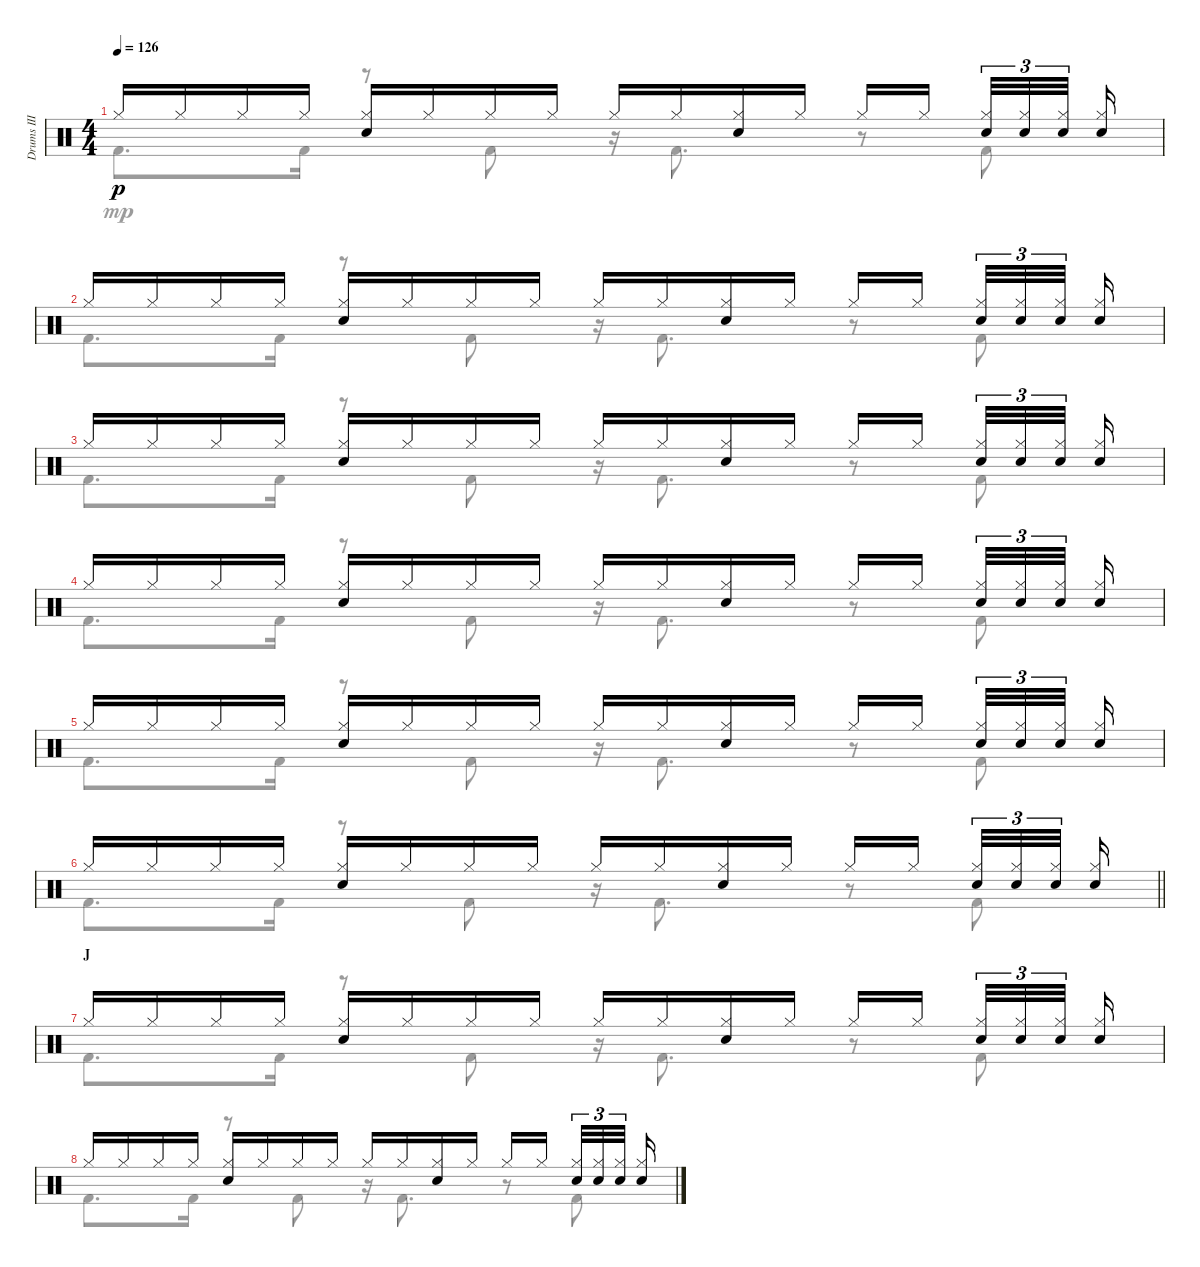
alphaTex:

\track ("Drums III" "Drums III") {instrument percussion}
\staff {score}
\articulation defaults
\voice
\ts (4 4)
\tempo 126
\clef neutral
\ks c "Hi-Hat (closed)".16{dy p} "Hi-Hat (closed)".16 "Hi-Hat (closed)".16 "Hi-Hat (closed)".16
("Hi-Hat (closed)" "Electric Snare (hit)").16 "Hi-Hat (closed)".16 "Hi-Hat (closed)".16 "Hi-Hat (closed)".16 "Hi-Hat (closed)".16 "Hi-Hat (closed)".16 ("Hi-Hat (closed)" "Electric Snare (hit)").16 "Hi-Hat (closed)".16 "Hi-Hat (closed)".16 "Hi-Hat (closed)".16{beam splitsecondary} ("Hi-Hat (closed)" "Electric Snare (hit)").32{tu (3 2)} ("Hi-Hat (closed)" "Electric Snare (hit)").32{tu (3 2)} ("Hi-Hat (closed)" "Electric Snare (hit)").32{tu (3 2) beam splitsecondary} ("Hi-Hat (closed)" "Electric Snare (hit)").16 |
"Hi-Hat (closed)".16 "Hi-Hat (closed)".16 "Hi-Hat (closed)".16 "Hi-Hat (closed)".16 ("Hi-Hat (closed)" "Electric Snare (hit)").16 "Hi-Hat (closed)".16 "Hi-Hat (closed)".16 "Hi-Hat (closed)".16 "Hi-Hat (closed)".16 "Hi-Hat (closed)".16 ("Hi-Hat (closed)" "Electric Snare (hit)").16 "Hi-Hat (closed)".16 "Hi-Hat (closed)".16 "Hi-Hat (closed)".16{beam splitsecondary} ("Hi-Hat (closed)" "Electric Snare (hit)").32{tu (3 2)} ("Hi-Hat (closed)" "Electric Snare (hit)").32{tu (3 2)} ("Hi-Hat (closed)" "Electric Snare (hit)").32{tu (3 2) beam splitsecondary} ("Hi-Hat (closed)" "Electric Snare (hit)").16 |
"Hi-Hat (closed)".16 "Hi-Hat (closed)".16 "Hi-Hat (closed)".16 "Hi-Hat (closed)".16 ("Hi-Hat (closed)" "Electric Snare (hit)").16 "Hi-Hat (closed)".16 "Hi-Hat (closed)".16 "Hi-Hat (closed)".16 "Hi-Hat (closed)".16 "Hi-Hat (closed)".16 ("Hi-Hat (closed)" "Electric Snare (hit)").16 "Hi-Hat (closed)".16 "Hi-Hat (closed)".16 "Hi-Hat (closed)".16{beam splitsecondary} ("Hi-Hat (closed)" "Electric Snare (hit)").32{tu (3 2)} ("Hi-Hat (closed)" "Electric Snare (hit)").32{tu (3 2)} ("Hi-Hat (closed)" "Electric Snare (hit)").32{tu (3 2) beam splitsecondary} ("Hi-Hat (closed)" "Electric Snare (hit)").16 |
"Hi-Hat (closed)".16 "Hi-Hat (closed)".16 "Hi-Hat (closed)".16 "Hi-Hat (closed)".16 ("Hi-Hat (closed)" "Electric Snare (hit)").16 "Hi-Hat (closed)".16 "Hi-Hat (closed)".16 "Hi-Hat (closed)".16 "Hi-Hat (closed)".16 "Hi-Hat (closed)".16 ("Hi-Hat (closed)" "Electric Snare (hit)").16 "Hi-Hat (closed)".16 "Hi-Hat (closed)".16 "Hi-Hat (closed)".16{beam splitsecondary} ("Hi-Hat (closed)" "Electric Snare (hit)").32{tu (3 2)} ("Hi-Hat (closed)" "Electric Snare (hit)").32{tu (3 2)} ("Hi-Hat (closed)" "Electric Snare (hit)").32{tu (3 2) beam splitsecondary} ("Hi-Hat (closed)" "Electric Snare (hit)").16 |
"Hi-Hat (closed)".16 "Hi-Hat (closed)".16 "Hi-Hat (closed)".16 "Hi-Hat (closed)".16 ("Hi-Hat (closed)" "Electric Snare (hit)").16 "Hi-Hat (closed)".16 "Hi-Hat (closed)".16 "Hi-Hat (closed)".16 "Hi-Hat (closed)".16 "Hi-Hat (closed)".16 ("Hi-Hat (closed)" "Electric Snare (hit)").16 "Hi-Hat (closed)".16 "Hi-Hat (closed)".16 "Hi-Hat (closed)".16{beam splitsecondary} ("Hi-Hat (closed)" "Electric Snare (hit)").32{tu (3 2)} ("Hi-Hat (closed)" "Electric Snare (hit)").32{tu (3 2)} ("Hi-Hat (closed)" "Electric Snare (hit)").32{tu (3 2) beam splitsecondary} ("Hi-Hat (closed)" "Electric Snare (hit)").16 |
\barLineRight lightlight "Hi-Hat (closed)".16 "Hi-Hat (closed)".16 "Hi-Hat (closed)".16 "Hi-Hat (closed)".16
("Hi-Hat (closed)" "Electric Snare (hit)").16 "Hi-Hat (closed)".16 "Hi-Hat (closed)".16 "Hi-Hat (closed)".16 "Hi-Hat (closed)".16 "Hi-Hat (closed)".16 ("Hi-Hat (closed)" "Electric Snare (hit)").16 "Hi-Hat (closed)".16 "Hi-Hat (closed)".16 "Hi-Hat (closed)".16{beam splitsecondary} ("Hi-Hat (closed)" "Electric Snare (hit)").32{tu (3 2)} ("Hi-Hat (closed)" "Electric Snare (hit)").32{tu (3 2)} ("Hi-Hat (closed)" "Electric Snare (hit)").32{tu (3 2) beam splitsecondary} ("Hi-Hat (closed)" "Electric Snare (hit)").16 |
\section ("" "J")
"Hi-Hat (closed)".16 "Hi-Hat (closed)".16 "Hi-Hat (closed)".16 "Hi-Hat (closed)".16 ("Hi-Hat (closed)" "Electric Snare (hit)").16 "Hi-Hat (closed)".16 "Hi-Hat (closed)".16 "Hi-Hat (closed)".16 "Hi-Hat (closed)".16 "Hi-Hat (closed)".16 ("Hi-Hat (closed)" "Electric Snare (hit)").16 "Hi-Hat (closed)".16 "Hi-Hat (closed)".16 "Hi-Hat (closed)".16{beam splitsecondary} ("Hi-Hat (closed)" "Electric Snare (hit)").32{tu (3 2)} ("Hi-Hat (closed)" "Electric Snare (hit)").32{tu (3 2)} ("Hi-Hat (closed)" "Electric Snare (hit)").32{tu (3 2) beam splitsecondary} ("Hi-Hat (closed)" "Electric Snare (hit)").16 |
"Hi-Hat (closed)".16 "Hi-Hat (closed)".16 "Hi-Hat (closed)".16 "Hi-Hat (closed)".16 ("Hi-Hat (closed)" "Electric Snare (hit)").16 "Hi-Hat (closed)".16 "Hi-Hat (closed)".16 "Hi-Hat (closed)".16 "Hi-Hat (closed)".16 "Hi-Hat (closed)".16 ("Hi-Hat (closed)" "Electric Snare (hit)").16 "Hi-Hat (closed)".16 "Hi-Hat (closed)".16 "Hi-Hat (closed)".16{beam splitsecondary} ("Hi-Hat (closed)" "Electric Snare (hit)").32{tu (3 2)} ("Hi-Hat (closed)" "Electric Snare (hit)").32{tu (3 2)} ("Hi-Hat (closed)" "Electric Snare (hit)").32{tu (3 2) beam splitsecondary} ("Hi-Hat (closed)" "Electric Snare (hit)").16
\voice
\clef neutral
\ottava regular
\simile none
\ks c "Kick (hit) 2".8{d dy mp} "Kick (hit) 2".16
r.8 "Kick (hit) 2".8 r.16 "Kick (hit) 2".8{d} r.8 "Kick (hit) 2".8 |
"Kick (hit) 2".8{d} "Kick (hit) 2".16 r.8 "Kick (hit) 2".8 r.16 "Kick (hit) 2".8{d} r.8 "Kick (hit) 2".8 |
"Kick (hit) 2".8{d} "Kick (hit) 2".16 r.8 "Kick (hit) 2".8 r.16 "Kick (hit) 2".8{d} r.8 "Kick (hit) 2".8 |
"Kick (hit) 2".8{d} "Kick (hit) 2".16 r.8 "Kick (hit) 2".8 r.16 "Kick (hit) 2".8{d} r.8 "Kick (hit) 2".8 |
"Kick (hit) 2".8{d} "Kick (hit) 2".16 r.8 "Kick (hit) 2".8 r.16 "Kick (hit) 2".8{d} r.8 "Kick (hit) 2".8 |
\barLineRight lightlight "Kick (hit) 2".8{d} "Kick (hit) 2".16
r.8 "Kick (hit) 2".8 r.16 "Kick (hit) 2".8{d} r.8 "Kick (hit) 2".8 |
"Kick (hit) 2".8{d} "Kick (hit) 2".16 r.8 "Kick (hit) 2".8 r.16 "Kick (hit) 2".8{d} r.8 "Kick (hit) 2".8 |
"Kick (hit) 2".8{d} "Kick (hit) 2".16 r.8 "Kick (hit) 2".8 r.16 "Kick (hit) 2".8{d} r.8 "Kick (hit) 2".8
